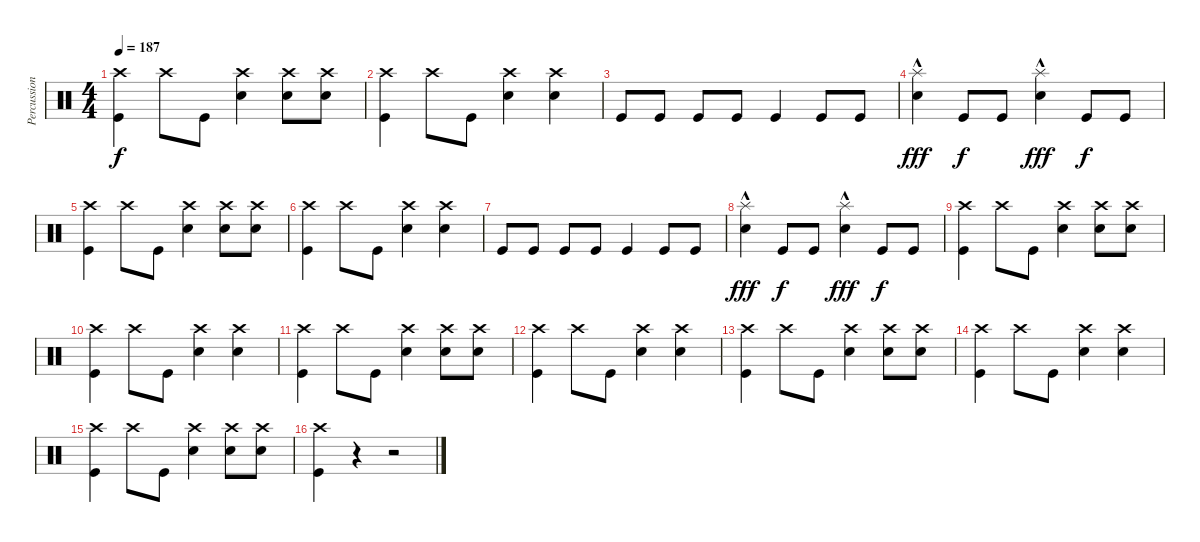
\track ("Percussions" "Percussion") {instrument percussion}
\staff {score}
\articulation defaults
\ts (4 4)
\tempo 187
\clef neutral
\ks c
("Crash high (hit)" "Kick (hit)").4{dy f} "Crash high (hit)".8 "Kick (hit)".8 ("Electric Snare (hit)" "Crash high (hit)").4 ("Crash high (hit)" "Electric Snare (hit)").8 ("Electric Snare (hit)" "Crash high (hit)").8 |
("Crash high (hit)" "Kick (hit)").4 "Crash high (hit)".8 "Kick (hit)".8 ("Electric Snare (hit)" "Crash high (hit)").4 ("Electric Snare (hit)" "Crash high (hit)").4 |
"Kick (hit)".8 "Kick (hit)".8 "Kick (hit)".8 "Kick (hit)".8 "Kick (hit)".4 "Kick (hit)".8 "Kick (hit)".8 |
("Electric Snare (hit)"{hac} "Splash (hit)"{hac}).4{dy fff} "Kick (hit)".8{dy f} "Kick (hit)".8 ("Electric Snare (hit)"{hac} "Splash (hit)"{hac}).4{dy fff} "Kick (hit)".8{dy f} "Kick (hit)".8 |
("Crash high (hit)" "Kick (hit)").4 "Crash high (hit)".8 "Kick (hit)".8 ("Electric Snare (hit)" "Crash high (hit)").4 ("Crash high (hit)" "Electric Snare (hit)").8 ("Electric Snare (hit)" "Crash high (hit)").8 |
("Crash high (hit)" "Kick (hit)").4 "Crash high (hit)".8 "Kick (hit)".8 ("Electric Snare (hit)" "Crash high (hit)").4 ("Electric Snare (hit)" "Crash high (hit)").4 |
"Kick (hit)".8 "Kick (hit)".8 "Kick (hit)".8 "Kick (hit)".8 "Kick (hit)".4 "Kick (hit)".8 "Kick (hit)".8 |
("Electric Snare (hit)"{hac} "Splash (hit)"{hac}).4{dy fff} "Kick (hit)".8{dy f} "Kick (hit)".8 ("Electric Snare (hit)"{hac} "Splash (hit)"{hac}).4{dy fff} "Kick (hit)".8{dy f} "Kick (hit)".8 |
("Crash high (hit)" "Kick (hit)").4 "Crash high (hit)".8 "Kick (hit)".8 ("Electric Snare (hit)" "Crash high (hit)").4 ("Crash high (hit)" "Electric Snare (hit)").8 ("Electric Snare (hit)" "Crash high (hit)").8 |
("Crash high (hit)" "Kick (hit)").4 "Crash high (hit)".8 "Kick (hit)".8 ("Electric Snare (hit)" "Crash high (hit)").4 ("Electric Snare (hit)" "Crash high (hit)").4 |
("Crash high (hit)" "Kick (hit)").4 "Crash high (hit)".8 "Kick (hit)".8 ("Electric Snare (hit)" "Crash high (hit)").4 ("Crash high (hit)" "Electric Snare (hit)").8 ("Electric Snare (hit)" "Crash high (hit)").8 |
("Crash high (hit)" "Kick (hit)").4 "Crash high (hit)".8 "Kick (hit)".8 ("Electric Snare (hit)" "Crash high (hit)").4 ("Electric Snare (hit)" "Crash high (hit)").4 |
("Crash high (hit)" "Kick (hit)").4 "Crash high (hit)".8 "Kick (hit)".8 ("Electric Snare (hit)" "Crash high (hit)").4 ("Crash high (hit)" "Electric Snare (hit)").8 ("Electric Snare (hit)" "Crash high (hit)").8 |
("Crash high (hit)" "Kick (hit)").4 "Crash high (hit)".8 "Kick (hit)".8 ("Electric Snare (hit)" "Crash high (hit)").4 ("Electric Snare (hit)" "Crash high (hit)").4 |
("Crash high (hit)" "Kick (hit)").4 "Crash high (hit)".8 "Kick (hit)".8 ("Electric Snare (hit)" "Crash high (hit)").4 ("Crash high (hit)" "Electric Snare (hit)").8 ("Electric Snare (hit)" "Crash high (hit)").8 |
("Crash high (hit)" "Kick (hit)").4 r.4 r.2
